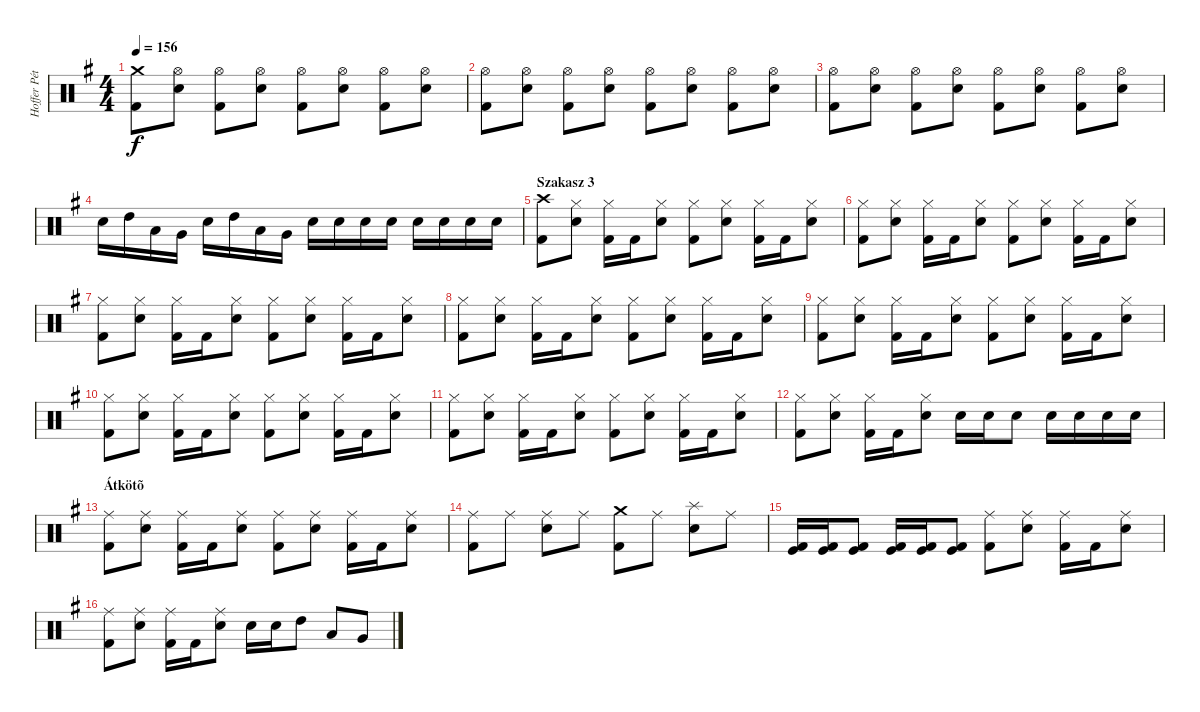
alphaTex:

\track ("Hoffer Péter" "Hoffer Pét") {instrument percussion}
\staff {score}
\articulation defaults
\ts (4 4)
\tempo 156
\clef neutral
\ks eminor
("Crash medium (hit)" "Kick (hit) 2").8{dy f} ("Hi-Hat (open)" "Snare (hit) 2").8 ("Hi-Hat (open)" "Kick (hit) 2").8 ("Hi-Hat (open)" "Snare (hit) 2").8 ("Hi-Hat (open)" "Kick (hit) 2").8 ("Hi-Hat (open)" "Snare (hit) 2").8 ("Hi-Hat (open)" "Kick (hit) 2").8 ("Hi-Hat (open)" "Snare (hit) 2").8 |
("Hi-Hat (open)" "Kick (hit) 2").8 ("Hi-Hat (open)" "Snare (hit) 2").8 ("Hi-Hat (open)" "Kick (hit) 2").8 ("Hi-Hat (open)" "Snare (hit) 2").8 ("Hi-Hat (open)" "Kick (hit) 2").8 ("Hi-Hat (open)" "Snare (hit) 2").8 ("Hi-Hat (open)" "Kick (hit) 2").8 ("Hi-Hat (open)" "Snare (hit) 2").8 |
("Hi-Hat (open)" "Kick (hit) 2").8 ("Hi-Hat (open)" "Snare (hit) 2").8 ("Hi-Hat (open)" "Kick (hit) 2").8 ("Hi-Hat (open)" "Snare (hit) 2").8 ("Hi-Hat (open)" "Kick (hit) 2").8 ("Hi-Hat (open)" "Snare (hit) 2").8 ("Hi-Hat (open)" "Kick (hit) 2").8 ("Hi-Hat (open)" "Snare (hit) 2").8 |
"Snare (hit) 2".16 "High Tom (hit)".16 "Low Tom (hit)".16 "Very Low Tom (hit)".16 "Snare (hit) 2".16 "High Tom (hit)".16 "Low Tom (hit)".16 "Very Low Tom (hit)".16 "Snare (hit) 2".16 "Snare (hit) 2".16 "Snare (hit) 2".16 "Snare (hit) 2".16 "Snare (hit) 2".16 "Snare (hit) 2".16 "Snare (hit) 2".16 "Snare (hit) 2".16 |
\section ("" "Szakasz 3")
("Crash high (hit)" "Kick (hit) 2").8 ("Hi-Hat (closed)" "Snare (hit) 2").8 ("Hi-Hat (closed)" "Kick (hit) 2").16 "Kick (hit) 2".16 ("Hi-Hat (closed)" "Snare (hit) 2").8 ("Hi-Hat (closed)" "Kick (hit) 2").8 ("Hi-Hat (closed)" "Snare (hit) 2").8 ("Hi-Hat (closed)" "Kick (hit) 2").16 "Kick (hit) 2".16 ("Hi-Hat (closed)" "Snare (hit) 2").8 |
("Hi-Hat (closed)" "Kick (hit) 2").8 ("Hi-Hat (closed)" "Snare (hit) 2").8 ("Hi-Hat (closed)" "Kick (hit) 2").16 "Kick (hit) 2".16 ("Hi-Hat (closed)" "Snare (hit) 2").8 ("Hi-Hat (closed)" "Kick (hit) 2").8 ("Hi-Hat (closed)" "Snare (hit) 2").8 ("Hi-Hat (closed)" "Kick (hit) 2").16 "Kick (hit) 2".16 ("Hi-Hat (closed)" "Snare (hit) 2").8 |
("Hi-Hat (closed)" "Kick (hit) 2").8 ("Hi-Hat (closed)" "Snare (hit) 2").8 ("Hi-Hat (closed)" "Kick (hit) 2").16 "Kick (hit) 2".16 ("Hi-Hat (closed)" "Snare (hit) 2").8 ("Hi-Hat (closed)" "Kick (hit) 2").8 ("Hi-Hat (closed)" "Snare (hit) 2").8 ("Hi-Hat (closed)" "Kick (hit) 2").16 "Kick (hit) 2".16 ("Hi-Hat (closed)" "Snare (hit) 2").8 |
("Hi-Hat (closed)" "Kick (hit) 2").8 ("Hi-Hat (closed)" "Snare (hit) 2").8 ("Hi-Hat (closed)" "Kick (hit) 2").16 "Kick (hit) 2".16 ("Hi-Hat (closed)" "Snare (hit) 2").8 ("Hi-Hat (closed)" "Kick (hit) 2").8 ("Hi-Hat (closed)" "Snare (hit) 2").8 ("Hi-Hat (closed)" "Kick (hit) 2").16 "Kick (hit) 2".16 ("Hi-Hat (closed)" "Snare (hit) 2").8 |
("Hi-Hat (closed)" "Kick (hit) 2").8 ("Hi-Hat (closed)" "Snare (hit) 2").8 ("Hi-Hat (closed)" "Kick (hit) 2").16 "Kick (hit) 2".16 ("Hi-Hat (closed)" "Snare (hit) 2").8 ("Hi-Hat (closed)" "Kick (hit) 2").8 ("Hi-Hat (closed)" "Snare (hit) 2").8 ("Hi-Hat (closed)" "Kick (hit) 2").16 "Kick (hit) 2".16 ("Hi-Hat (closed)" "Snare (hit) 2").8 |
("Hi-Hat (closed)" "Kick (hit) 2").8 ("Hi-Hat (closed)" "Snare (hit) 2").8 ("Hi-Hat (closed)" "Kick (hit) 2").16 "Kick (hit) 2".16 ("Hi-Hat (closed)" "Snare (hit) 2").8 ("Hi-Hat (closed)" "Kick (hit) 2").8 ("Hi-Hat (closed)" "Snare (hit) 2").8 ("Hi-Hat (closed)" "Kick (hit) 2").16 "Kick (hit) 2".16 ("Hi-Hat (closed)" "Snare (hit) 2").8 |
("Hi-Hat (closed)" "Kick (hit) 2").8 ("Hi-Hat (closed)" "Snare (hit) 2").8 ("Hi-Hat (closed)" "Kick (hit) 2").16 "Kick (hit) 2".16 ("Hi-Hat (closed)" "Snare (hit) 2").8 ("Hi-Hat (closed)" "Kick (hit) 2").8 ("Hi-Hat (closed)" "Snare (hit) 2").8 ("Hi-Hat (closed)" "Kick (hit) 2").16 "Kick (hit) 2".16 ("Hi-Hat (closed)" "Snare (hit) 2").8 |
("Hi-Hat (closed)" "Kick (hit) 2").8 ("Hi-Hat (closed)" "Snare (hit) 2").8 ("Hi-Hat (closed)" "Kick (hit) 2").16 "Kick (hit) 2".16 ("Hi-Hat (closed)" "Snare (hit) 2").8 "Snare (hit) 2".16 "Snare (hit) 2".16 "Snare (hit) 2".8 "Snare (hit) 2".16 "Snare (hit) 2".16 "Snare (hit) 2".16 "Snare (hit) 2".16 |
\section ("" "Átkötõ")
("Ride (middle)" "Kick (hit) 2").8 ("Ride (middle)" "Snare (hit) 2").8 ("Ride (middle)" "Kick (hit) 2").16 "Kick (hit) 2".16 ("Ride (middle)" "Snare (hit) 2").8 ("Ride (middle)" "Kick (hit) 2").8 ("Ride (middle)" "Snare (hit) 2").8 ("Ride (middle)" "Kick (hit) 2").16 "Kick (hit) 2".16 ("Ride (middle)" "Snare (hit) 2").8 |
("Ride (middle)" "Kick (hit) 2").8 "Ride (middle)".8 ("Ride (middle)" "Snare (hit) 2").8 "Ride (middle)".8 ("Crash medium (hit)" "Kick (hit) 2").8 "Ride (middle)".8 ("Splash (hit)" "Snare (hit) 2").8 "Ride (middle)".8 |
("Kick (hit) 2" "Kick (hit)").16 ("Kick (hit) 2" "Kick (hit)").16 ("Kick (hit) 2" "Kick (hit)").8 ("Kick (hit) 2" "Kick (hit)").16 ("Kick (hit) 2" "Kick (hit)").16 ("Kick (hit) 2" "Kick (hit)").8 ("Ride (middle)" "Kick (hit) 2").8 ("Ride (middle)" "Snare (hit) 2").8 ("Ride (middle)" "Kick (hit) 2").16 "Kick (hit) 2".16 ("Ride (middle)" "Snare (hit) 2").8 |
("Ride (middle)" "Kick (hit) 2").8 ("Ride (middle)" "Snare (hit) 2").8 ("Ride (middle)" "Kick (hit) 2").16 "Kick (hit) 2".16 ("Ride (middle)" "Snare (hit) 2").8 "Snare (hit) 2".16 "Snare (hit) 2".16 "High Tom (hit)".8 "Low Tom (hit)".8 "Very Low Tom (hit)".8
